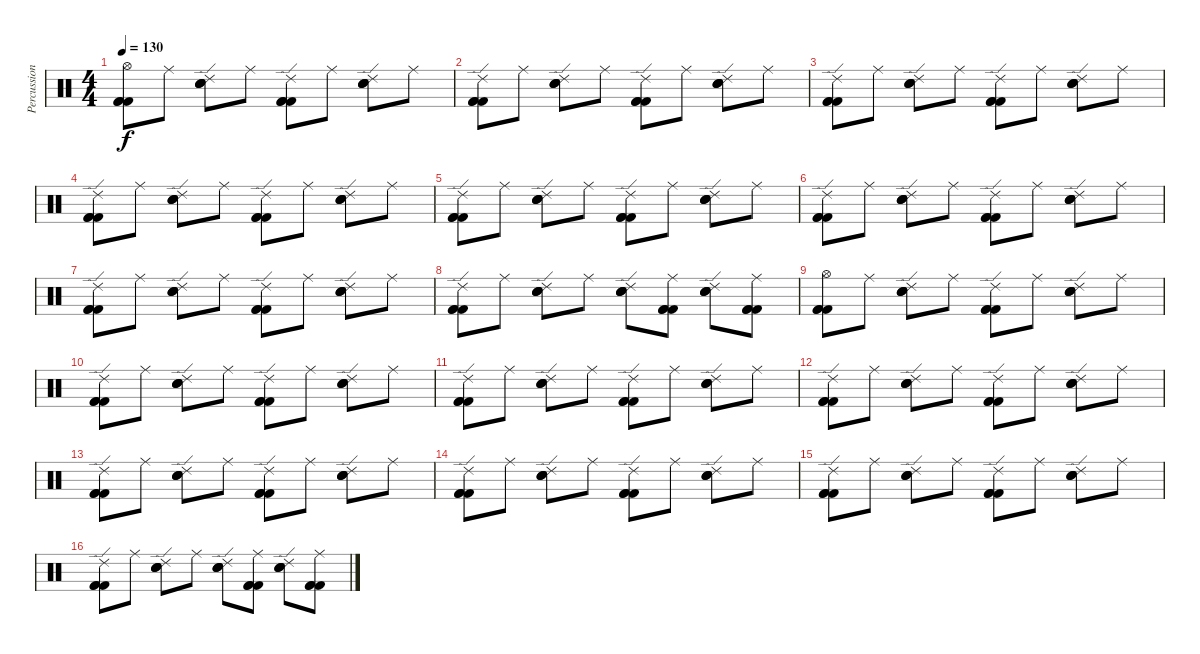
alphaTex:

\track ("Percussion" "Percussion") {instrument percussion}
\staff {score}
\articulation defaults
\ts (4 4)
\tempo 130
\clef neutral
\ks c
("Hi-Hat (open)" "Kick (hit) 2" "Kick (hit) 2" "Kick (hit) 2").8{dy f} "Ride (middle)".8 ("Ride (edge) 2" "Electric Snare (hit)" "Electric Snare (hit)" "Electric Snare (hit)").8 "Ride (middle)".8 ("Ride (edge) 2" "Kick (hit) 2" "Kick (hit) 2" "Kick (hit) 2").8 "Ride (middle)".8 ("Ride (edge) 2" "Electric Snare (hit)" "Electric Snare (hit)" "Electric Snare (hit)").8 "Ride (middle)".8 |
("Ride (edge) 2" "Kick (hit) 2" "Kick (hit) 2" "Kick (hit) 2").8 "Ride (middle)".8 ("Ride (edge) 2" "Electric Snare (hit)" "Electric Snare (hit)" "Electric Snare (hit)").8 "Ride (middle)".8 ("Ride (edge) 2" "Kick (hit) 2" "Kick (hit) 2" "Kick (hit) 2").8 "Ride (middle)".8 ("Ride (edge) 2" "Electric Snare (hit)" "Electric Snare (hit)" "Electric Snare (hit)").8 "Ride (middle)".8 |
("Ride (edge) 2" "Kick (hit) 2" "Kick (hit) 2" "Kick (hit) 2").8 "Ride (middle)".8 ("Ride (edge) 2" "Electric Snare (hit)" "Electric Snare (hit)" "Electric Snare (hit)").8 "Ride (middle)".8 ("Ride (edge) 2" "Kick (hit) 2" "Kick (hit) 2" "Kick (hit) 2").8 "Ride (middle)".8 ("Ride (edge) 2" "Electric Snare (hit)" "Electric Snare (hit)" "Electric Snare (hit)").8 "Ride (middle)".8 |
("Ride (edge) 2" "Kick (hit) 2" "Kick (hit) 2" "Kick (hit) 2").8 "Ride (middle)".8 ("Ride (edge) 2" "Electric Snare (hit)" "Electric Snare (hit)" "Electric Snare (hit)").8 "Ride (middle)".8 ("Ride (edge) 2" "Kick (hit) 2" "Kick (hit) 2" "Kick (hit) 2").8 "Ride (middle)".8 ("Ride (edge) 2" "Electric Snare (hit)" "Electric Snare (hit)" "Electric Snare (hit)").8 "Ride (middle)".8 |
("Ride (edge) 2" "Kick (hit) 2" "Kick (hit) 2" "Kick (hit) 2").8 "Ride (middle)".8 ("Ride (edge) 2" "Electric Snare (hit)" "Electric Snare (hit)" "Electric Snare (hit)").8 "Ride (middle)".8 ("Ride (edge) 2" "Kick (hit) 2" "Kick (hit) 2" "Kick (hit) 2").8 "Ride (middle)".8 ("Ride (edge) 2" "Electric Snare (hit)" "Electric Snare (hit)" "Electric Snare (hit)").8 "Ride (middle)".8 |
("Ride (edge) 2" "Kick (hit) 2" "Kick (hit) 2" "Kick (hit) 2").8 "Ride (middle)".8 ("Ride (edge) 2" "Electric Snare (hit)" "Electric Snare (hit)" "Electric Snare (hit)").8 "Ride (middle)".8 ("Ride (edge) 2" "Kick (hit) 2" "Kick (hit) 2" "Kick (hit) 2").8 "Ride (middle)".8 ("Ride (edge) 2" "Electric Snare (hit)" "Electric Snare (hit)" "Electric Snare (hit)").8 "Ride (middle)".8 |
("Ride (edge) 2" "Kick (hit) 2" "Kick (hit) 2" "Kick (hit) 2").8 "Ride (middle)".8 ("Ride (edge) 2" "Electric Snare (hit)" "Electric Snare (hit)" "Electric Snare (hit)").8 "Ride (middle)".8 ("Ride (edge) 2" "Kick (hit) 2" "Kick (hit) 2" "Kick (hit) 2").8 "Ride (middle)".8 ("Ride (edge) 2" "Electric Snare (hit)" "Electric Snare (hit)" "Electric Snare (hit)").8 "Ride (middle)".8 |
("Ride (edge) 2" "Kick (hit) 2" "Kick (hit) 2" "Kick (hit) 2").8 "Ride (middle)".8 ("Ride (edge) 2" "Electric Snare (hit)" "Electric Snare (hit)" "Electric Snare (hit)").8 "Ride (middle)".8 ("Ride (edge) 2" "Electric Snare (hit)" "Electric Snare (hit)" "Electric Snare (hit)").8 ("Ride (middle)" "Kick (hit) 2" "Kick (hit) 2" "Kick (hit) 2").8 ("Ride (edge) 2" "Electric Snare (hit)" "Electric Snare (hit)" "Electric Snare (hit)").8 ("Ride (middle)" "Kick (hit) 2" "Kick (hit) 2" "Kick (hit) 2").8 |
("Hi-Hat (open)" "Kick (hit) 2" "Kick (hit) 2" "Kick (hit) 2").8 "Ride (middle)".8 ("Ride (edge) 2" "Electric Snare (hit)" "Electric Snare (hit)" "Electric Snare (hit)").8 "Ride (middle)".8 ("Ride (edge) 2" "Kick (hit) 2" "Kick (hit) 2" "Kick (hit) 2").8 "Ride (middle)".8 ("Ride (edge) 2" "Electric Snare (hit)" "Electric Snare (hit)" "Electric Snare (hit)").8 "Ride (middle)".8 |
("Ride (edge) 2" "Kick (hit) 2" "Kick (hit) 2" "Kick (hit) 2").8 "Ride (middle)".8 ("Ride (edge) 2" "Electric Snare (hit)" "Electric Snare (hit)" "Electric Snare (hit)").8 "Ride (middle)".8 ("Ride (edge) 2" "Kick (hit) 2" "Kick (hit) 2" "Kick (hit) 2").8 "Ride (middle)".8 ("Ride (edge) 2" "Electric Snare (hit)" "Electric Snare (hit)" "Electric Snare (hit)").8 "Ride (middle)".8 |
("Ride (edge) 2" "Kick (hit) 2" "Kick (hit) 2" "Kick (hit) 2").8 "Ride (middle)".8 ("Ride (edge) 2" "Electric Snare (hit)" "Electric Snare (hit)" "Electric Snare (hit)").8 "Ride (middle)".8 ("Ride (edge) 2" "Kick (hit) 2" "Kick (hit) 2" "Kick (hit) 2").8 "Ride (middle)".8 ("Ride (edge) 2" "Electric Snare (hit)" "Electric Snare (hit)" "Electric Snare (hit)").8 "Ride (middle)".8 |
("Ride (edge) 2" "Kick (hit) 2" "Kick (hit) 2" "Kick (hit) 2").8 "Ride (middle)".8 ("Ride (edge) 2" "Electric Snare (hit)" "Electric Snare (hit)" "Electric Snare (hit)").8 "Ride (middle)".8 ("Ride (edge) 2" "Kick (hit) 2" "Kick (hit) 2" "Kick (hit) 2").8 "Ride (middle)".8 ("Ride (edge) 2" "Electric Snare (hit)" "Electric Snare (hit)" "Electric Snare (hit)").8 "Ride (middle)".8 |
("Ride (edge) 2" "Kick (hit) 2" "Kick (hit) 2" "Kick (hit) 2").8 "Ride (middle)".8 ("Ride (edge) 2" "Electric Snare (hit)" "Electric Snare (hit)" "Electric Snare (hit)").8 "Ride (middle)".8 ("Ride (edge) 2" "Kick (hit) 2" "Kick (hit) 2" "Kick (hit) 2").8 "Ride (middle)".8 ("Ride (edge) 2" "Electric Snare (hit)" "Electric Snare (hit)" "Electric Snare (hit)").8 "Ride (middle)".8 |
("Ride (edge) 2" "Kick (hit) 2" "Kick (hit) 2" "Kick (hit) 2").8 "Ride (middle)".8 ("Ride (edge) 2" "Electric Snare (hit)" "Electric Snare (hit)" "Electric Snare (hit)").8 "Ride (middle)".8 ("Ride (edge) 2" "Kick (hit) 2" "Kick (hit) 2" "Kick (hit) 2").8 "Ride (middle)".8 ("Ride (edge) 2" "Electric Snare (hit)" "Electric Snare (hit)" "Electric Snare (hit)").8 "Ride (middle)".8 |
("Ride (edge) 2" "Kick (hit) 2" "Kick (hit) 2" "Kick (hit) 2").8 "Ride (middle)".8 ("Ride (edge) 2" "Electric Snare (hit)" "Electric Snare (hit)" "Electric Snare (hit)").8 "Ride (middle)".8 ("Ride (edge) 2" "Kick (hit) 2" "Kick (hit) 2" "Kick (hit) 2").8 "Ride (middle)".8 ("Ride (edge) 2" "Electric Snare (hit)" "Electric Snare (hit)" "Electric Snare (hit)").8 "Ride (middle)".8 |
("Ride (edge) 2" "Kick (hit) 2" "Kick (hit) 2" "Kick (hit) 2").8 "Ride (middle)".8 ("Ride (edge) 2" "Electric Snare (hit)" "Electric Snare (hit)" "Electric Snare (hit)").8 "Ride (middle)".8 ("Ride (edge) 2" "Electric Snare (hit)" "Electric Snare (hit)" "Electric Snare (hit)").8 ("Ride (middle)" "Kick (hit) 2" "Kick (hit) 2" "Kick (hit) 2").8 ("Ride (edge) 2" "Electric Snare (hit)" "Electric Snare (hit)" "Electric Snare (hit)").8 ("Ride (middle)" "Kick (hit) 2" "Kick (hit) 2" "Kick (hit) 2").8
